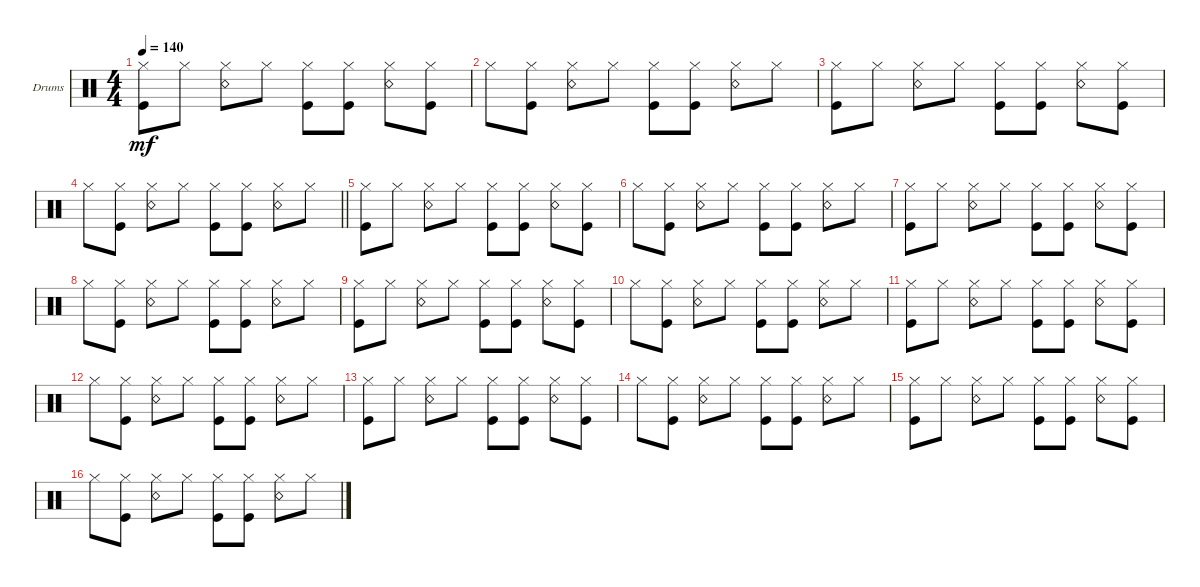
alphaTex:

\defaultSystemsLayout 4
\bracketExtendMode groupsimilarinstruments
\firstSystemTrackNameOrientation horizontal
\otherSystemsTrackNameOrientation horizontal
\track ("Drumkit" "Drums") {instrument percussion}
\staff {score}
\articulation defaults
\ts (4 4)
\tempo 140
\clef neutral
\ks c
("Kick (hit)" "Hi-Hat (closed)").8{dy mf} "Hi-Hat (closed)".8 ("Hi-Hat (closed)" "Snare (rim shot)").8 "Hi-Hat (closed)".8 ("Hi-Hat (closed)" "Kick (hit)").8 ("Hi-Hat (closed)" "Kick (hit)").8 ("Hi-Hat (closed)" "Snare (rim shot)").8 ("Hi-Hat (closed)" "Kick (hit)").8 |
"Hi-Hat (closed)".8 ("Hi-Hat (closed)" "Kick (hit)").8 ("Hi-Hat (closed)" "Snare (rim shot)").8 "Hi-Hat (closed)".8 ("Hi-Hat (closed)" "Kick (hit)").8 ("Hi-Hat (closed)" "Kick (hit)").8 ("Hi-Hat (closed)" "Snare (rim shot)").8 "Hi-Hat (closed)".8 |
("Kick (hit)" "Hi-Hat (closed)").8 "Hi-Hat (closed)".8 ("Hi-Hat (closed)" "Snare (rim shot)").8 "Hi-Hat (closed)".8 ("Hi-Hat (closed)" "Kick (hit)").8 ("Hi-Hat (closed)" "Kick (hit)").8 ("Hi-Hat (closed)" "Snare (rim shot)").8 ("Hi-Hat (closed)" "Kick (hit)").8 |
\barLineRight lightlight "Hi-Hat (closed)".8
("Hi-Hat (closed)" "Kick (hit)").8 ("Hi-Hat (closed)" "Snare (rim shot)").8 "Hi-Hat (closed)".8 ("Hi-Hat (closed)" "Kick (hit)").8 ("Hi-Hat (closed)" "Kick (hit)").8 ("Hi-Hat (closed)" "Snare (rim shot)").8 "Hi-Hat (closed)".8 |
("Kick (hit)" "Hi-Hat (closed)").8 "Hi-Hat (closed)".8 ("Hi-Hat (closed)" "Snare (rim shot)").8 "Hi-Hat (closed)".8 ("Hi-Hat (closed)" "Kick (hit)").8 ("Hi-Hat (closed)" "Kick (hit)").8 ("Hi-Hat (closed)" "Snare (rim shot)").8 ("Hi-Hat (closed)" "Kick (hit)").8 |
"Hi-Hat (closed)".8 ("Hi-Hat (closed)" "Kick (hit)").8 ("Hi-Hat (closed)" "Snare (rim shot)").8 "Hi-Hat (closed)".8 ("Hi-Hat (closed)" "Kick (hit)").8 ("Hi-Hat (closed)" "Kick (hit)").8 ("Hi-Hat (closed)" "Snare (rim shot)").8 "Hi-Hat (closed)".8 |
("Kick (hit)" "Hi-Hat (closed)").8 "Hi-Hat (closed)".8 ("Hi-Hat (closed)" "Snare (rim shot)").8 "Hi-Hat (closed)".8 ("Hi-Hat (closed)" "Kick (hit)").8 ("Hi-Hat (closed)" "Kick (hit)").8 ("Hi-Hat (closed)" "Snare (rim shot)").8 ("Hi-Hat (closed)" "Kick (hit)").8 |
"Hi-Hat (closed)".8 ("Hi-Hat (closed)" "Kick (hit)").8 ("Hi-Hat (closed)" "Snare (rim shot)").8 "Hi-Hat (closed)".8 ("Hi-Hat (closed)" "Kick (hit)").8 ("Hi-Hat (closed)" "Kick (hit)").8 ("Hi-Hat (closed)" "Snare (rim shot)").8 "Hi-Hat (closed)".8 |
("Kick (hit)" "Hi-Hat (closed)").8 "Hi-Hat (closed)".8 ("Hi-Hat (closed)" "Snare (rim shot)").8 "Hi-Hat (closed)".8 ("Hi-Hat (closed)" "Kick (hit)").8 ("Hi-Hat (closed)" "Kick (hit)").8 ("Hi-Hat (closed)" "Snare (rim shot)").8 ("Hi-Hat (closed)" "Kick (hit)").8 |
"Hi-Hat (closed)".8 ("Hi-Hat (closed)" "Kick (hit)").8 ("Hi-Hat (closed)" "Snare (rim shot)").8 "Hi-Hat (closed)".8 ("Hi-Hat (closed)" "Kick (hit)").8 ("Hi-Hat (closed)" "Kick (hit)").8 ("Hi-Hat (closed)" "Snare (rim shot)").8 "Hi-Hat (closed)".8 |
("Kick (hit)" "Hi-Hat (closed)").8 "Hi-Hat (closed)".8 ("Hi-Hat (closed)" "Snare (rim shot)").8 "Hi-Hat (closed)".8 ("Hi-Hat (closed)" "Kick (hit)").8 ("Hi-Hat (closed)" "Kick (hit)").8 ("Hi-Hat (closed)" "Snare (rim shot)").8 ("Hi-Hat (closed)" "Kick (hit)").8 |
"Hi-Hat (closed)".8 ("Hi-Hat (closed)" "Kick (hit)").8 ("Hi-Hat (closed)" "Snare (rim shot)").8 "Hi-Hat (closed)".8 ("Hi-Hat (closed)" "Kick (hit)").8 ("Hi-Hat (closed)" "Kick (hit)").8 ("Hi-Hat (closed)" "Snare (rim shot)").8 "Hi-Hat (closed)".8 |
("Kick (hit)" "Hi-Hat (closed)").8 "Hi-Hat (closed)".8 ("Hi-Hat (closed)" "Snare (rim shot)").8 "Hi-Hat (closed)".8 ("Hi-Hat (closed)" "Kick (hit)").8 ("Hi-Hat (closed)" "Kick (hit)").8 ("Hi-Hat (closed)" "Snare (rim shot)").8 ("Hi-Hat (closed)" "Kick (hit)").8 |
"Hi-Hat (closed)".8 ("Hi-Hat (closed)" "Kick (hit)").8 ("Hi-Hat (closed)" "Snare (rim shot)").8 "Hi-Hat (closed)".8 ("Hi-Hat (closed)" "Kick (hit)").8 ("Hi-Hat (closed)" "Kick (hit)").8 ("Hi-Hat (closed)" "Snare (rim shot)").8 "Hi-Hat (closed)".8 |
("Kick (hit)" "Hi-Hat (closed)").8 "Hi-Hat (closed)".8 ("Hi-Hat (closed)" "Snare (rim shot)").8 "Hi-Hat (closed)".8 ("Hi-Hat (closed)" "Kick (hit)").8 ("Hi-Hat (closed)" "Kick (hit)").8 ("Hi-Hat (closed)" "Snare (rim shot)").8 ("Hi-Hat (closed)" "Kick (hit)").8 |
"Hi-Hat (closed)".8 ("Hi-Hat (closed)" "Kick (hit)").8 ("Hi-Hat (closed)" "Snare (rim shot)").8 "Hi-Hat (closed)".8 ("Hi-Hat (closed)" "Kick (hit)").8 ("Hi-Hat (closed)" "Kick (hit)").8 ("Hi-Hat (closed)" "Snare (rim shot)").8 "Hi-Hat (closed)".8
